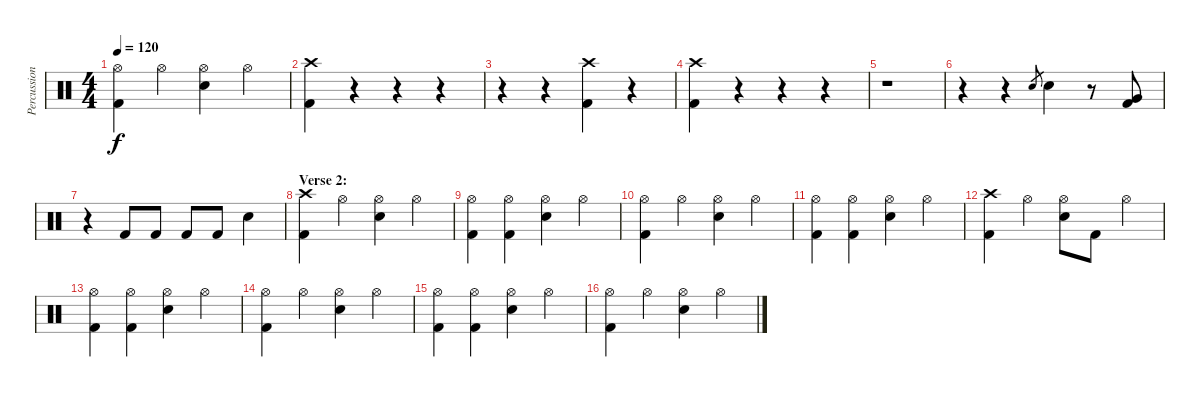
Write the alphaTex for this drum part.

\track ("Percussion" "Percussion") {instrument percussion}
\staff {score}
\articulation defaults
\ts (4 4)
\tempo 120
\clef neutral
\ks c
("Hi-Hat (open)" "Kick (hit) 2").4{dy f} "Hi-Hat (open)".4 ("Hi-Hat (open)" "Electric Snare (hit)").4 "Hi-Hat (open)".4 |
("Crash high (hit)" "Kick (hit) 2").4 r.4 r.4 r.4 |
r.4 r.4 ("Crash high (hit)" "Kick (hit) 2").4 r.4 |
("Crash high (hit)" "Kick (hit) 2").4 r.4 r.4 r.4 |
r.1 |
r.4 r.4 "Electric Snare (hit)".8{gr} "Electric Snare (hit)".4 r.8 ("Very Low Tom (hit)" "Kick (hit) 2").8 |
r.4 "Kick (hit) 2".8 "Kick (hit) 2".8 "Kick (hit) 2".8 "Kick (hit) 2".8 "Electric Snare (hit)".4 |
\section ("" "Verse 2:")
("Crash high (hit)" "Kick (hit) 2").4 "Hi-Hat (open)".4 ("Hi-Hat (open)" "Electric Snare (hit)").4 "Hi-Hat (open)".4 |
("Hi-Hat (open)" "Kick (hit) 2").4 ("Hi-Hat (open)" "Kick (hit) 2").4 ("Hi-Hat (open)" "Electric Snare (hit)").4 "Hi-Hat (open)".4 |
("Hi-Hat (open)" "Kick (hit) 2").4 "Hi-Hat (open)".4 ("Hi-Hat (open)" "Electric Snare (hit)").4 "Hi-Hat (open)".4 |
("Hi-Hat (open)" "Kick (hit) 2").4 ("Hi-Hat (open)" "Kick (hit) 2").4 ("Hi-Hat (open)" "Electric Snare (hit)").4 "Hi-Hat (open)".4 |
("Crash high (hit)" "Kick (hit) 2").4 "Hi-Hat (open)".4 ("Hi-Hat (open)" "Electric Snare (hit)").8 "Kick (hit) 2".8 "Hi-Hat (open)".4 |
("Hi-Hat (open)" "Kick (hit) 2").4 ("Hi-Hat (open)" "Kick (hit) 2").4 ("Hi-Hat (open)" "Electric Snare (hit)").4 "Hi-Hat (open)".4 |
("Hi-Hat (open)" "Kick (hit) 2").4 "Hi-Hat (open)".4 ("Hi-Hat (open)" "Electric Snare (hit)").4 "Hi-Hat (open)".4 |
("Hi-Hat (open)" "Kick (hit) 2").4 ("Hi-Hat (open)" "Kick (hit) 2").4 ("Hi-Hat (open)" "Electric Snare (hit)").4 "Hi-Hat (open)".4 |
("Hi-Hat (open)" "Kick (hit) 2").4 "Hi-Hat (open)".4 ("Hi-Hat (open)" "Electric Snare (hit)").4 "Hi-Hat (open)".4
